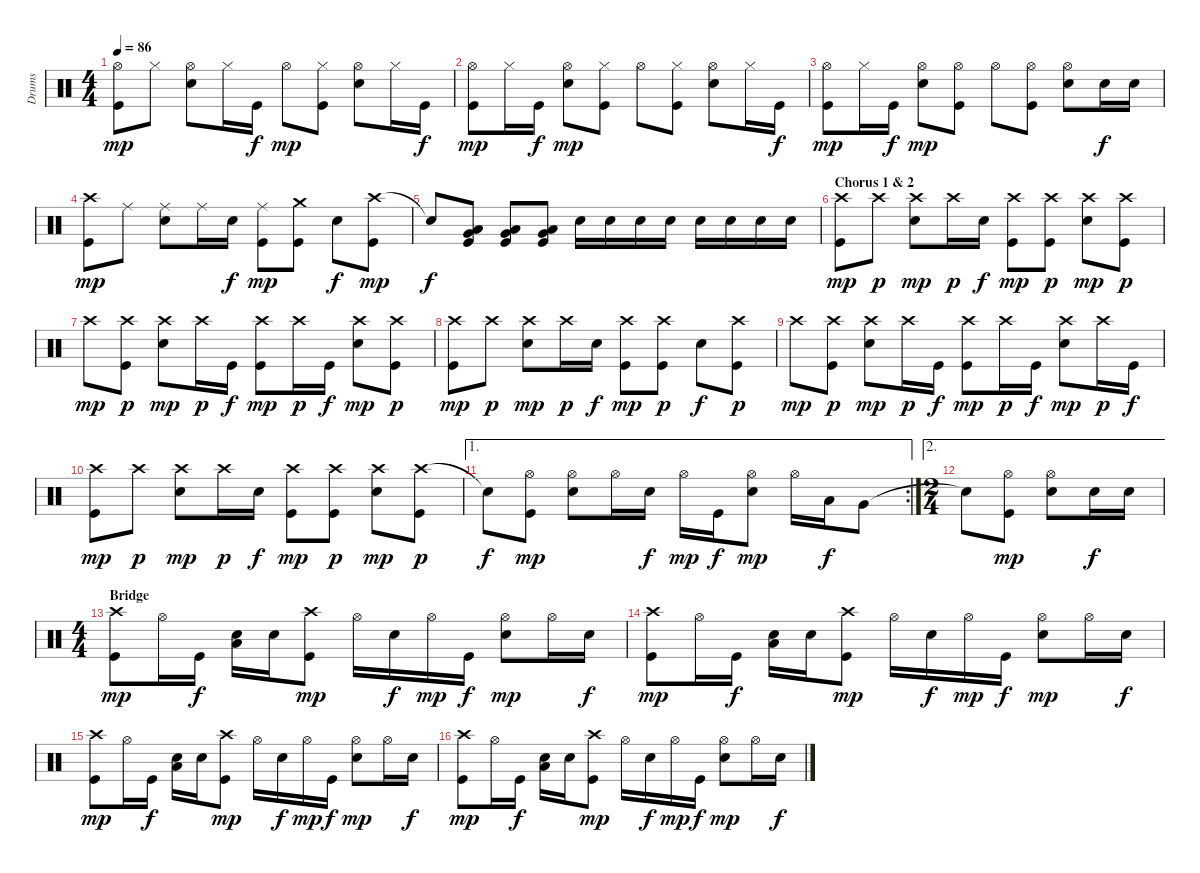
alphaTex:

\track ("Drums" "Drums") {instrument percussion}
\staff {score}
\articulation defaults
\ts (4 4)
\tempo 86
\clef neutral
\ks c
("Hi-Hat (open)" "Kick (hit)").8{dy mp} "Hi-Hat (closed)".8 ("Hi-Hat (open)" "Electric Snare (hit)").8 "Hi-Hat (closed)".16 "Kick (hit)".16{dy f} "Hi-Hat (open)".8{dy mp} ("Hi-Hat (closed)" "Kick (hit)").8 ("Hi-Hat (open)" "Electric Snare (hit)").8 "Hi-Hat (closed)".16 "Kick (hit)".16{dy f} |
("Hi-Hat (open)" "Kick (hit)").8{dy mp} "Hi-Hat (closed)".16 "Kick (hit)".16{dy f} ("Hi-Hat (open)" "Electric Snare (hit)").8{dy mp} ("Hi-Hat (closed)" "Kick (hit)").8 "Hi-Hat (open)".8 ("Hi-Hat (closed)" "Kick (hit)").8 ("Hi-Hat (open)" "Electric Snare (hit)").8 "Hi-Hat (closed)".16 "Kick (hit)".16{dy f} |
("Hi-Hat (open)" "Kick (hit)").8{dy mp} "Hi-Hat (closed)".16 "Kick (hit)".16{dy f} ("Hi-Hat (open)" "Electric Snare (hit)").8{dy mp} ("Hi-Hat (open)" "Kick (hit)").8 "Hi-Hat (open)".8 ("Hi-Hat (open)" "Kick (hit)").8 ("Hi-Hat (open)" "Electric Snare (hit)").8 "Electric Snare (hit)".16{dy f} "Electric Snare (hit)".16 |
("Crash high (hit)" "Kick (hit)").8{dy mp} "Ride (middle)".8 ("Ride (middle)" "Electric Snare (hit)").8 "Ride (middle)".16 "Electric Snare (hit)".16{dy f} ("Ride (middle)" "Kick (hit)").8{dy mp} ("Crash medium (hit)" "Kick (hit)").8 "Electric Snare (hit)".8{dy f} ("Crash high (hit)" "Kick (hit)").8{dy mp} |
"Snare (hit)"{t}.8{dy f} ("Low Tom (hit)" "Very Low Tom (hit)" "Kick (hit)").8 ("Low Tom (hit)" "Very Low Tom (hit)" "Kick (hit)").8 ("Low Tom (hit)" "Very Low Tom (hit)" "Kick (hit)").8 "Electric Snare (hit)".16 "Electric Snare (hit)".16 "Electric Snare (hit)".16 "Electric Snare (hit)".16 "Electric Snare (hit)".16 "Electric Snare (hit)".16 "Electric Snare (hit)".16 "Electric Snare (hit)".16 |
\section ("" "Chorus 1 & 2")
("Crash high (hit)" "Kick (hit)").8{dy mp} "Crash high (hit)".8{dy p} ("Crash high (hit)" "Electric Snare (hit)").8{dy mp} "Crash high (hit)".16{dy p} "Electric Snare (hit)".16{dy f} ("Crash high (hit)" "Kick (hit)").8{dy mp} ("Crash high (hit)" "Kick (hit)").8{dy p} ("Crash high (hit)" "Electric Snare (hit)").8{dy mp} ("Crash high (hit)" "Kick (hit)").8{dy p} |
"Crash high (hit)".8{dy mp} ("Crash high (hit)" "Kick (hit)").8{dy p} ("Crash high (hit)" "Electric Snare (hit)").8{dy mp} "Crash high (hit)".16{dy p} "Kick (hit)".16{dy f} ("Crash high (hit)" "Kick (hit)").8{dy mp} "Crash high (hit)".16{dy p} "Kick (hit)".16{dy f} ("Crash high (hit)" "Electric Snare (hit)").8{dy mp} ("Crash high (hit)" "Kick (hit)").8{dy p} |
("Crash high (hit)" "Kick (hit)").8{dy mp} "Crash high (hit)".8{dy p} ("Crash high (hit)" "Electric Snare (hit)").8{dy mp} "Crash high (hit)".16{dy p} "Electric Snare (hit)".16{dy f} ("Crash high (hit)" "Kick (hit)").8{dy mp} ("Crash high (hit)" "Kick (hit)").8{dy p} "Electric Snare (hit)".8{dy f} ("Crash high (hit)" "Kick (hit)").8{dy p} |
"Crash high (hit)".8{dy mp} ("Crash high (hit)" "Kick (hit)").8{dy p} ("Crash high (hit)" "Electric Snare (hit)").8{dy mp} "Crash high (hit)".16{dy p} "Kick (hit)".16{dy f} ("Crash high (hit)" "Kick (hit)").8{dy mp} "Crash high (hit)".16{dy p} "Kick (hit)".16{dy f} ("Crash high (hit)" "Electric Snare (hit)").8{dy mp} "Crash high (hit)".16{dy p} "Kick (hit)".16{dy f} |
("Crash high (hit)" "Kick (hit)").8{dy mp} "Crash high (hit)".8{dy p} ("Crash high (hit)" "Electric Snare (hit)").8{dy mp} "Crash high (hit)".16{dy p} "Electric Snare (hit)".16{dy f} ("Crash high (hit)" "Kick (hit)").8{dy mp} ("Crash high (hit)" "Kick (hit)").8{dy p} ("Crash high (hit)" "Electric Snare (hit)").8{dy mp} ("Crash high (hit)" "Kick (hit)").8{dy p} |
\ae 1
\rc 2 "Snare (hit)"{t}.8{dy f}
("Hi-Hat (open)" "Kick (hit)").8{dy mp} ("Hi-Hat (open)" "Electric Snare (hit)").8 "Hi-Hat (open)".16 "Electric Snare (hit)".16{dy f} "Hi-Hat (open)".16{dy mp} "Kick (hit)".16{dy f} ("Hi-Hat (open)" "Electric Snare (hit)").8{dy mp} "Hi-Hat (open)".16 "Low Tom (hit)".16{dy f} "Very Low Tom (hit)".8 |
\ae 2
\ts (2 4)
"Snare (hit)"{t}.8 ("Hi-Hat (open)" "Kick (hit)").8{dy mp} ("Hi-Hat (open)" "Electric Snare (hit)").8 "Electric Snare (hit)".16{dy f} "Electric Snare (hit)".16 |
\ts (4 4)
\section ("" "Bridge")
("Crash high (hit)" "Kick (hit)").8{dy mp} "Hi-Hat (open)".16 "Kick (hit)".16{dy f} ("Electric Snare (hit)" "Low Floor Tom (hit)").16 "Electric Snare (hit)".16 ("Crash high (hit)" "Kick (hit)").8{dy mp} "Hi-Hat (open)".16 "Electric Snare (hit)".16{dy f} "Hi-Hat (open)".16{dy mp} "Kick (hit)".16{dy f} ("Hi-Hat (open)" "Electric Snare (hit)").8{dy mp} "Hi-Hat (open)".16 "Electric Snare (hit)".16{dy f} |
("Crash high (hit)" "Kick (hit)").8{dy mp} "Hi-Hat (open)".16 "Kick (hit)".16{dy f} ("Electric Snare (hit)" "Low Floor Tom (hit)").16 "Electric Snare (hit)".16 ("Crash high (hit)" "Kick (hit)").8{dy mp} "Hi-Hat (open)".16 "Electric Snare (hit)".16{dy f} "Hi-Hat (open)".16{dy mp} "Kick (hit)".16{dy f} ("Hi-Hat (open)" "Electric Snare (hit)").8{dy mp} "Hi-Hat (open)".16 "Electric Snare (hit)".16{dy f} |
("Crash high (hit)" "Kick (hit)").8{dy mp} "Hi-Hat (open)".16 "Kick (hit)".16{dy f} ("Electric Snare (hit)" "Low Floor Tom (hit)").16 "Electric Snare (hit)".16 ("Crash high (hit)" "Kick (hit)").8{dy mp} "Hi-Hat (open)".16 "Electric Snare (hit)".16{dy f} "Hi-Hat (open)".16{dy mp} "Kick (hit)".16{dy f} ("Hi-Hat (open)" "Electric Snare (hit)").8{dy mp} "Hi-Hat (open)".16 "Electric Snare (hit)".16{dy f} |
("Crash high (hit)" "Kick (hit)").8{dy mp} "Hi-Hat (open)".16 "Kick (hit)".16{dy f} ("Electric Snare (hit)" "Low Floor Tom (hit)").16 "Electric Snare (hit)".16 ("Crash high (hit)" "Kick (hit)").8{dy mp} "Hi-Hat (open)".16 "Electric Snare (hit)".16{dy f} "Hi-Hat (open)".16{dy mp} "Kick (hit)".16{dy f} ("Hi-Hat (open)" "Electric Snare (hit)").8{dy mp} "Hi-Hat (open)".16 "Electric Snare (hit)".16{dy f}
